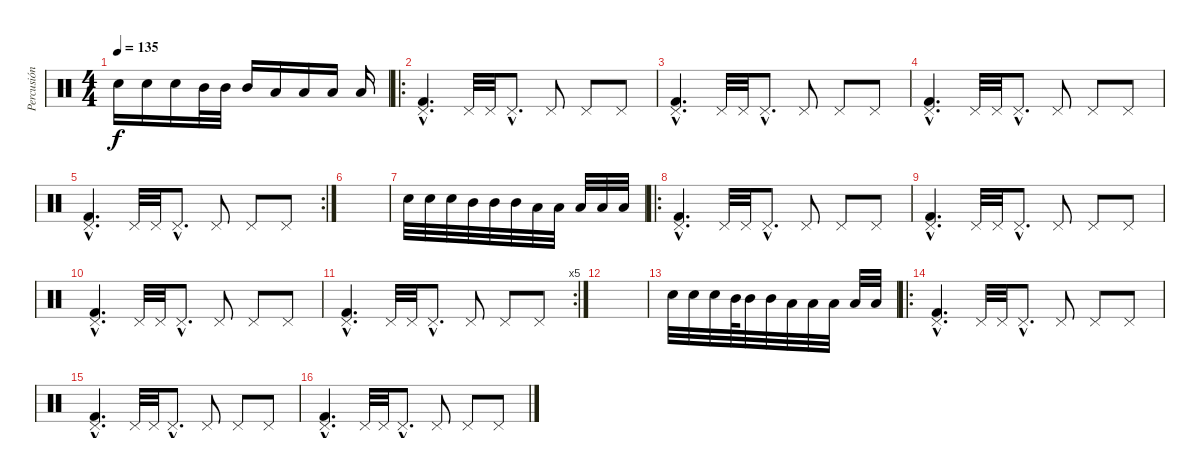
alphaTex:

\track ("Percusión Bateria" "Percusión ") {instrument percussion}
\staff {score}
\articulation defaults
\ts (4 4)
\tempo 135
\clef neutral
\ks c "Snare (hit) 2".16{dy f} "Snare (hit) 2".16 "Snare (hit) 2".16 "Mid Tom (hit)".32 "Mid Tom (hit)".32 "Mid Tom (hit)".16 "Low Tom (hit)".16 "Low Tom (hit)".16 "Low Tom (hit)".16 "Low Tom (hit)".16
|
\ro
("Pedal Hi-Hat (hit)"{hac} "Kick (hit) 2"{hac}).4{d} "Pedal Hi-Hat (hit)".32 "Pedal Hi-Hat (hit)".32 "Pedal Hi-Hat (hit)"{hac}.8{d} "Pedal Hi-Hat (hit)".8 "Pedal Hi-Hat (hit)".8 "Pedal Hi-Hat (hit)".8 |
("Pedal Hi-Hat (hit)"{hac} "Kick (hit) 2"{hac}).4{d} "Pedal Hi-Hat (hit)".32 "Pedal Hi-Hat (hit)".32 "Pedal Hi-Hat (hit)"{hac}.8{d} "Pedal Hi-Hat (hit)".8 "Pedal Hi-Hat (hit)".8 "Pedal Hi-Hat (hit)".8 |
("Pedal Hi-Hat (hit)"{hac} "Kick (hit) 2"{hac}).4{d} "Pedal Hi-Hat (hit)".32 "Pedal Hi-Hat (hit)".32 "Pedal Hi-Hat (hit)"{hac}.8{d} "Pedal Hi-Hat (hit)".8 "Pedal Hi-Hat (hit)".8 "Pedal Hi-Hat (hit)".8 |
\rc 2
("Pedal Hi-Hat (hit)"{hac} "Kick (hit) 2"{hac}).4{d} "Pedal Hi-Hat (hit)".32 "Pedal Hi-Hat (hit)".32 "Pedal Hi-Hat (hit)"{hac}.8{d} "Pedal Hi-Hat (hit)".8 "Pedal Hi-Hat (hit)".8 "Pedal Hi-Hat (hit)".8 |
|
"Snare (hit) 2".32 "Snare (hit) 2".32 "Snare (hit) 2".32 "Mid Tom (hit)".32 "Mid Tom (hit)".32 "Mid Tom (hit)".32 "Low Tom (hit)".32 "Low Tom (hit)".32 "Low Tom (hit)".32 "Low Tom (hit)".32 "Low Tom (hit)".32 |
\ro
("Pedal Hi-Hat (hit)"{hac} "Kick (hit) 2"{hac}).4{d} "Pedal Hi-Hat (hit)".32 "Pedal Hi-Hat (hit)".32 "Pedal Hi-Hat (hit)"{hac}.8{d} "Pedal Hi-Hat (hit)".8 "Pedal Hi-Hat (hit)".8 "Pedal Hi-Hat (hit)".8 |
("Pedal Hi-Hat (hit)"{hac} "Kick (hit) 2"{hac}).4{d} "Pedal Hi-Hat (hit)".32 "Pedal Hi-Hat (hit)".32 "Pedal Hi-Hat (hit)"{hac}.8{d} "Pedal Hi-Hat (hit)".8 "Pedal Hi-Hat (hit)".8 "Pedal Hi-Hat (hit)".8 |
("Pedal Hi-Hat (hit)"{hac} "Kick (hit) 2"{hac}).4{d} "Pedal Hi-Hat (hit)".32 "Pedal Hi-Hat (hit)".32 "Pedal Hi-Hat (hit)"{hac}.8{d} "Pedal Hi-Hat (hit)".8 "Pedal Hi-Hat (hit)".8 "Pedal Hi-Hat (hit)".8 |
\rc 5
("Pedal Hi-Hat (hit)"{hac} "Kick (hit) 2"{hac}).4{d} "Pedal Hi-Hat (hit)".32 "Pedal Hi-Hat (hit)".32 "Pedal Hi-Hat (hit)"{hac}.8{d} "Pedal Hi-Hat (hit)".8 "Pedal Hi-Hat (hit)".8 "Pedal Hi-Hat (hit)".8 |
|
"Snare (hit) 2".32 "Snare (hit) 2".32 "Snare (hit) 2".32 "Mid Tom (hit)".64 "Mid Tom (hit)".32 "Mid Tom (hit)".32 "Low Tom (hit)".32 "Low Tom (hit)".32 "Low Tom (hit)".32 "Low Tom (hit)".32 "Low Tom (hit)".32 |
\ro
("Pedal Hi-Hat (hit)"{hac} "Kick (hit) 2"{hac}).4{d} "Pedal Hi-Hat (hit)".32 "Pedal Hi-Hat (hit)".32 "Pedal Hi-Hat (hit)"{hac}.8{d} "Pedal Hi-Hat (hit)".8 "Pedal Hi-Hat (hit)".8 "Pedal Hi-Hat (hit)".8 |
("Pedal Hi-Hat (hit)"{hac} "Kick (hit) 2"{hac}).4{d} "Pedal Hi-Hat (hit)".32 "Pedal Hi-Hat (hit)".32 "Pedal Hi-Hat (hit)"{hac}.8{d} "Pedal Hi-Hat (hit)".8 "Pedal Hi-Hat (hit)".8 "Pedal Hi-Hat (hit)".8 |
("Pedal Hi-Hat (hit)"{hac} "Kick (hit) 2"{hac}).4{d} "Pedal Hi-Hat (hit)".32 "Pedal Hi-Hat (hit)".32 "Pedal Hi-Hat (hit)"{hac}.8{d} "Pedal Hi-Hat (hit)".8 "Pedal Hi-Hat (hit)".8 "Pedal Hi-Hat (hit)".8
